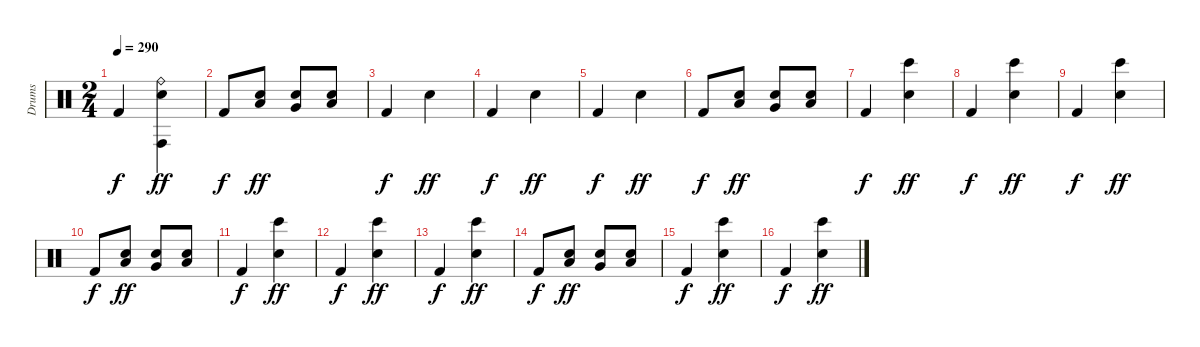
\track ("Drums" "Drums") {instrument percussion}
\staff {score}
\articulation defaults
\ts (2 4)
\tempo 290
\clef neutral
\ks c "Kick (hit) 2".4{dy f}
("Ride (bell)" "Conga high (hit)" "Electric Snare (hit)").4{dy ff} |
"Kick (hit) 2".8{dy f} ("Low Tom (hit)" "Electric Snare (hit)").8{dy ff} ("Very Low Tom (hit)" "Electric Snare (hit)").8 ("Low Floor Tom (hit)" "Electric Snare (hit)").8 |
"Kick (hit) 2".4{dy f} "Electric Snare (hit)".4{dy ff} |
"Kick (hit) 2".4{dy f} "Electric Snare (hit)".4{dy ff} |
"Kick (hit) 2".4{dy f} "Electric Snare (hit)".4{dy ff} |
"Kick (hit) 2".8{dy f} ("Low Floor Tom (hit)" "Electric Snare (hit)").8{dy ff} ("Very Low Tom (hit)" "Electric Snare (hit)").8 ("Low Tom (hit)" "Electric Snare (hit)").8 |
"Kick (hit) 2".4{dy f} ("Bongo High (hit)" "Electric Snare (hit)").4{dy ff} |
"Kick (hit) 2".4{dy f} ("Bongo High (hit)" "Electric Snare (hit)").4{dy ff} |
"Kick (hit) 2".4{dy f} ("Bongo High (hit)" "Electric Snare (hit)").4{dy ff} |
"Kick (hit) 2".8{dy f} ("Low Tom (hit)" "Electric Snare (hit)").8{dy ff} ("Very Low Tom (hit)" "Electric Snare (hit)").8 ("Low Floor Tom (hit)" "Electric Snare (hit)").8 |
"Kick (hit) 2".4{dy f} ("Bongo High (hit)" "Electric Snare (hit)").4{dy ff} |
"Kick (hit) 2".4{dy f} ("Bongo High (hit)" "Electric Snare (hit)").4{dy ff} |
"Kick (hit) 2".4{dy f} ("Bongo High (hit)" "Electric Snare (hit)").4{dy ff} |
"Kick (hit) 2".8{dy f} ("Low Floor Tom (hit)" "Electric Snare (hit)").8{dy ff} ("Very Low Tom (hit)" "Electric Snare (hit)").8 ("Low Tom (hit)" "Electric Snare (hit)").8 |
"Kick (hit) 2".4{dy f} ("Bongo High (hit)" "Electric Snare (hit)").4{dy ff} |
"Kick (hit) 2".4{dy f} ("Bongo High (hit)" "Electric Snare (hit)").4{dy ff}
